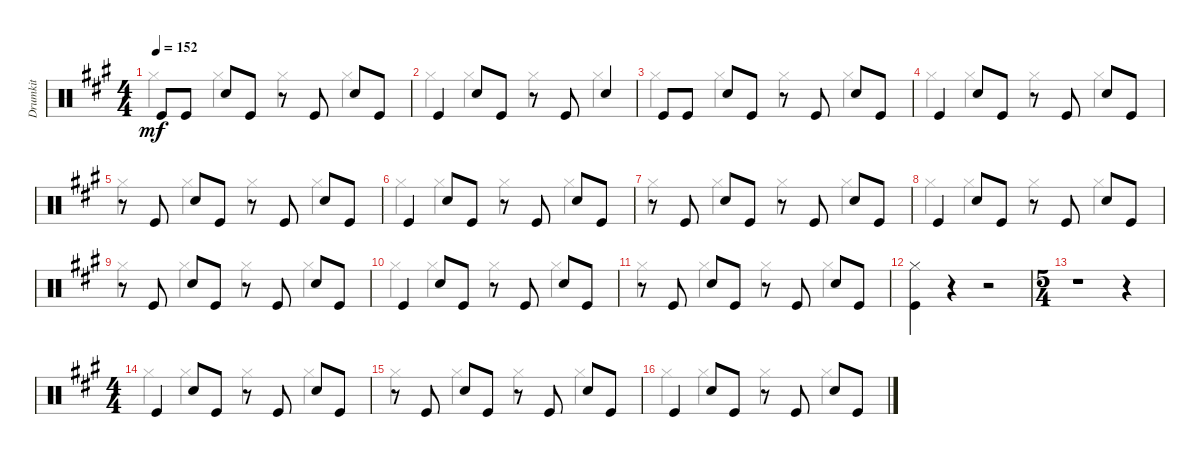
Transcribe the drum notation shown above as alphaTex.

\track ("Drumkit" "Drumkit") {instrument percussion}
\staff {score}
\articulation defaults
\voice
\ts (4 4)
\tempo 152
\clef neutral
\ks a "Kick (hit)".8{dy mf} "Kick (hit)".8 "Snare (hit) 2".8 "Kick (hit)".8
r.8 "Kick (hit)".8 "Snare (hit) 2".8 "Kick (hit)".8 |
"Kick (hit)".4 "Snare (hit) 2".8 "Kick (hit)".8 r.8 "Kick (hit)".8 "Snare (hit) 2".4 |
"Kick (hit)".8 "Kick (hit)".8 "Snare (hit) 2".8 "Kick (hit)".8 r.8 "Kick (hit)".8 "Snare (hit) 2".8 "Kick (hit)".8 |
"Kick (hit)".4 "Snare (hit) 2".8 "Kick (hit)".8 r.8 "Kick (hit)".8 "Snare (hit) 2".8 "Kick (hit)".8 |
r.8 "Kick (hit)".8 "Snare (hit) 2".8 "Kick (hit)".8 r.8 "Kick (hit)".8 "Snare (hit) 2".8 "Kick (hit)".8 |
"Kick (hit)".4 "Snare (hit) 2".8 "Kick (hit)".8 r.8 "Kick (hit)".8 "Snare (hit) 2".8 "Kick (hit)".8 |
r.8 "Kick (hit)".8 "Snare (hit) 2".8 "Kick (hit)".8 r.8 "Kick (hit)".8 "Snare (hit) 2".8 "Kick (hit)".8 |
"Kick (hit)".4 "Snare (hit) 2".8 "Kick (hit)".8 r.8 "Kick (hit)".8 "Snare (hit) 2".8 "Kick (hit)".8 |
r.8 "Kick (hit)".8 "Snare (hit) 2".8 "Kick (hit)".8 r.8 "Kick (hit)".8 "Snare (hit) 2".8 "Kick (hit)".8 |
"Kick (hit)".4 "Snare (hit) 2".8 "Kick (hit)".8 r.8 "Kick (hit)".8 "Snare (hit) 2".8 "Kick (hit)".8 |
r.8 "Kick (hit)".8 "Snare (hit) 2".8 "Kick (hit)".8 r.8 "Kick (hit)".8 "Snare (hit) 2".8 "Kick (hit)".8 |
("Kick (hit)" "Hi-Hat (closed)").4 r.4 r.2 |
\ts (5 4)
r.1 r.4 |
\ts (4 4)
"Kick (hit)".4 "Snare (hit) 2".8 "Kick (hit)".8 r.8 "Kick (hit)".8 "Snare (hit) 2".8 "Kick (hit)".8 |
r.8 "Kick (hit)".8 "Snare (hit) 2".8 "Kick (hit)".8 r.8 "Kick (hit)".8 "Snare (hit) 2".8 "Kick (hit)".8 |
"Kick (hit)".4 "Snare (hit) 2".8 "Kick (hit)".8 r.8 "Kick (hit)".8 "Snare (hit) 2".8 "Kick (hit)".8
\voice
\clef neutral
\ottava regular
\simile none
\ks a "Hi-Hat (closed)".4{dy mf} "Hi-Hat (closed)".4 "Hi-Hat (closed)".4 "Hi-Hat (closed)".4
|
"Hi-Hat (closed)".4 "Hi-Hat (closed)".4 "Hi-Hat (closed)".4 "Hi-Hat (closed)".4 |
"Hi-Hat (closed)".4 "Hi-Hat (closed)".4 "Hi-Hat (closed)".4 "Hi-Hat (closed)".4 |
"Hi-Hat (closed)".4 "Hi-Hat (closed)".4 "Hi-Hat (closed)".4 "Hi-Hat (closed)".4 |
"Hi-Hat (closed)".4 "Hi-Hat (closed)".4 "Hi-Hat (closed)".4 "Hi-Hat (closed)".4 |
"Hi-Hat (closed)".4 "Hi-Hat (closed)".4 "Hi-Hat (closed)".4 "Hi-Hat (closed)".4 |
"Hi-Hat (closed)".4 "Hi-Hat (closed)".4 "Hi-Hat (closed)".4 "Hi-Hat (closed)".4 |
"Hi-Hat (closed)".4 "Hi-Hat (closed)".4 "Hi-Hat (closed)".4 "Hi-Hat (closed)".4 |
"Hi-Hat (closed)".4 "Hi-Hat (closed)".4 "Hi-Hat (closed)".4 "Hi-Hat (closed)".4 |
"Hi-Hat (closed)".4 "Hi-Hat (closed)".4 "Hi-Hat (closed)".4 "Hi-Hat (closed)".4 |
"Hi-Hat (closed)".4 "Hi-Hat (closed)".4 "Hi-Hat (closed)".4 "Hi-Hat (closed)".4 |
|
|
"Hi-Hat (closed)".4 "Hi-Hat (closed)".4 "Hi-Hat (closed)".4 "Hi-Hat (closed)".4 |
"Hi-Hat (closed)".4 "Hi-Hat (closed)".4 "Hi-Hat (closed)".4 "Hi-Hat (closed)".4 |
"Hi-Hat (closed)".4 "Hi-Hat (closed)".4 "Hi-Hat (closed)".4 "Hi-Hat (closed)".4
